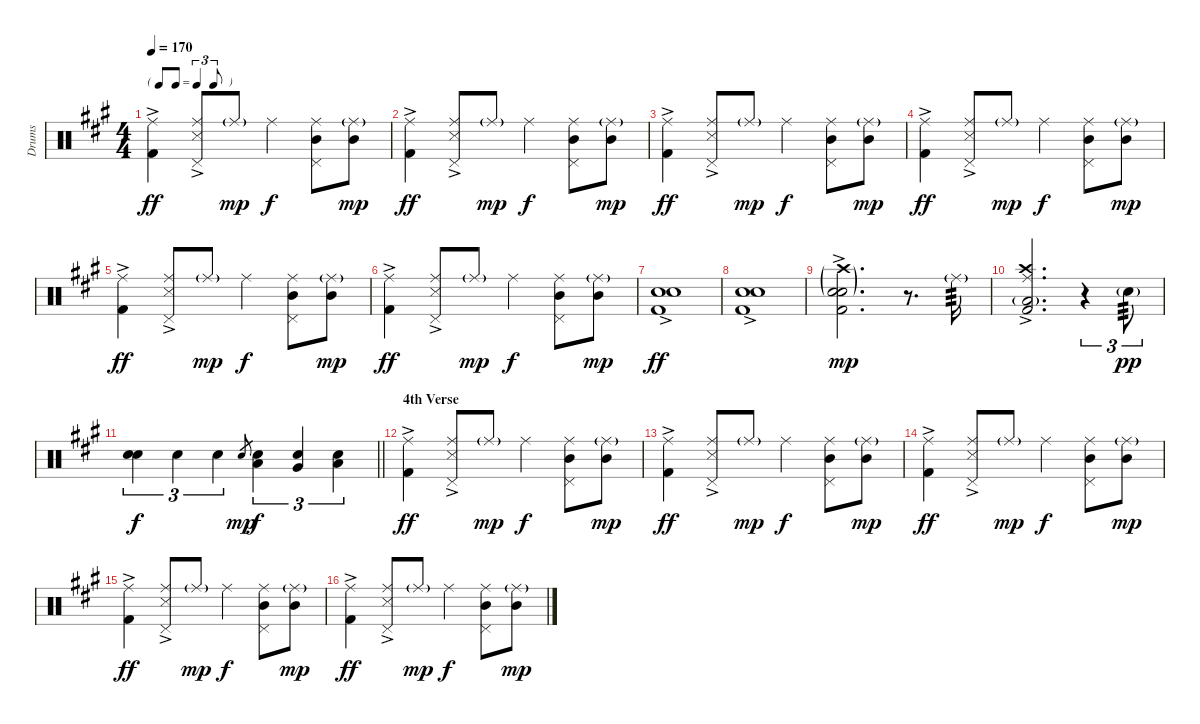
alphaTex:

\track ("Drums" "Drums") {instrument percussion}
\staff {score}
\articulation defaults
\ts (4 4)
\tf triplet8th
\tempo 170
\clef neutral
\ks a
("Kick (hit) 2"{ac} "Ride (middle)").4{dy ff} ("Snare (side stick) 3"{ac} "Pedal Hi-Hat (hit)" "Ride (middle)").8 "Ride (middle)"{g}.8{dy mp} "Ride (middle)".4{dy f} ("Mid Tom (hit)" "Pedal Hi-Hat (hit)" "Ride (middle)").8 ("Mid Tom (hit)" "Ride (middle)"{g}).8{dy mp} |
("Kick (hit) 2"{ac} "Ride (middle)").4{dy ff} ("Snare (side stick) 3"{ac} "Pedal Hi-Hat (hit)" "Ride (middle)").8 "Ride (middle)"{g}.8{dy mp} "Ride (middle)".4{dy f} ("Mid Tom (hit)" "Pedal Hi-Hat (hit)" "Ride (middle)").8 ("Mid Tom (hit)" "Ride (middle)"{g}).8{dy mp} |
("Kick (hit) 2"{ac} "Ride (middle)").4{dy ff} ("Snare (side stick) 3"{ac} "Pedal Hi-Hat (hit)" "Ride (middle)").8 "Ride (middle)"{g}.8{dy mp} "Ride (middle)".4{dy f} ("Mid Tom (hit)" "Pedal Hi-Hat (hit)" "Ride (middle)").8 ("Mid Tom (hit)" "Ride (middle)"{g}).8{dy mp} |
("Kick (hit) 2"{ac} "Ride (middle)").4{dy ff} ("Snare (side stick) 3"{ac} "Pedal Hi-Hat (hit)" "Ride (middle)").8 "Ride (middle)"{g}.8{dy mp} "Ride (middle)".4{dy f} ("Mid Tom (hit)" "Pedal Hi-Hat (hit)" "Ride (middle)").8 ("Mid Tom (hit)" "Ride (middle)"{g}).8{dy mp} |
("Kick (hit) 2"{ac} "Ride (middle)").4{dy ff} ("Snare (side stick) 3"{ac} "Pedal Hi-Hat (hit)" "Ride (middle)").8 "Ride (middle)"{g}.8{dy mp} "Ride (middle)".4{dy f} ("Mid Tom (hit)" "Pedal Hi-Hat (hit)" "Ride (middle)").8 ("Mid Tom (hit)" "Ride (middle)"{g}).8{dy mp} |
("Kick (hit) 2"{ac} "Ride (middle)").4{dy ff} ("Snare (side stick) 3"{ac} "Pedal Hi-Hat (hit)" "Ride (middle)").8 "Ride (middle)"{g}.8{dy mp} "Ride (middle)".4{dy f} ("Mid Tom (hit)" "Pedal Hi-Hat (hit)" "Ride (middle)").8 ("Mid Tom (hit)" "Ride (middle)"{g}).8{dy mp} |
("Kick (hit) 2"{ac} "Electric Snare (hit)"{ac} "Snare (hit) 2").1{dy ff} |
("Kick (hit) 2"{ac} "Electric Snare (hit)"{ac} "Snare (hit) 2").1 |
("Kick (hit) 2"{ac} "Electric Snare (hit)"{g} "Snare (hit) 2"{g} "Crash high (hit)"{g}).2{d dy mp} r.8{d} "Ride (middle)"{g}.16{tp 3} |
("Kick (hit) 2"{ac} "Low Tom (hit)"{g} "Ride (middle)" "Crash high (hit)").2{d} r.4{tu (3 2)} "Snare (hit) 2"{g}.8{tu (3 2) tp 3 dy pp} |
\barLineRight lightlight
("Snare (hit) 2" "Electric Snare (hit)").4{tu (3 2) dy f} "Snare (hit) 2".4{tu (3 2)} "Snare (hit) 2".4{tu (3 2)} "Electric Snare (hit)".8{gr dy mp} ("Electric Snare (hit)" "Low Tom (hit)").4{tu (3 2) dy f} ("Electric Snare (hit)" "Very Low Tom (hit)").4{tu (3 2)} ("Electric Snare (hit)" "Low Floor Tom (hit)").4{tu (3 2)} |
\section ("" "4th Verse")
("Kick (hit) 2"{ac} "Ride (middle)").4{dy ff} ("Snare (side stick) 3"{ac} "Pedal Hi-Hat (hit)" "Ride (middle)").8 "Ride (middle)"{g}.8{dy mp} "Ride (middle)".4{dy f} ("Mid Tom (hit)" "Pedal Hi-Hat (hit)" "Ride (middle)").8 ("Mid Tom (hit)" "Ride (middle)"{g}).8{dy mp} |
("Kick (hit) 2"{ac} "Ride (middle)").4{dy ff} ("Snare (side stick) 3"{ac} "Pedal Hi-Hat (hit)" "Ride (middle)").8 "Ride (middle)"{g}.8{dy mp} "Ride (middle)".4{dy f} ("Mid Tom (hit)" "Pedal Hi-Hat (hit)" "Ride (middle)").8 ("Mid Tom (hit)" "Ride (middle)"{g}).8{dy mp} |
("Kick (hit) 2"{ac} "Ride (middle)").4{dy ff} ("Snare (side stick) 3"{ac} "Pedal Hi-Hat (hit)" "Ride (middle)").8 "Ride (middle)"{g}.8{dy mp} "Ride (middle)".4{dy f} ("Mid Tom (hit)" "Pedal Hi-Hat (hit)" "Ride (middle)").8 ("Mid Tom (hit)" "Ride (middle)"{g}).8{dy mp} |
("Kick (hit) 2"{ac} "Ride (middle)").4{dy ff} ("Snare (side stick) 3"{ac} "Pedal Hi-Hat (hit)" "Ride (middle)").8 "Ride (middle)"{g}.8{dy mp} "Ride (middle)".4{dy f} ("Mid Tom (hit)" "Pedal Hi-Hat (hit)" "Ride (middle)").8 ("Mid Tom (hit)" "Ride (middle)"{g}).8{dy mp} |
("Kick (hit) 2"{ac} "Ride (middle)").4{dy ff} ("Snare (side stick) 3"{ac} "Pedal Hi-Hat (hit)" "Ride (middle)").8 "Ride (middle)"{g}.8{dy mp} "Ride (middle)".4{dy f} ("Mid Tom (hit)" "Pedal Hi-Hat (hit)" "Ride (middle)").8 ("Mid Tom (hit)" "Ride (middle)"{g}).8{dy mp}
